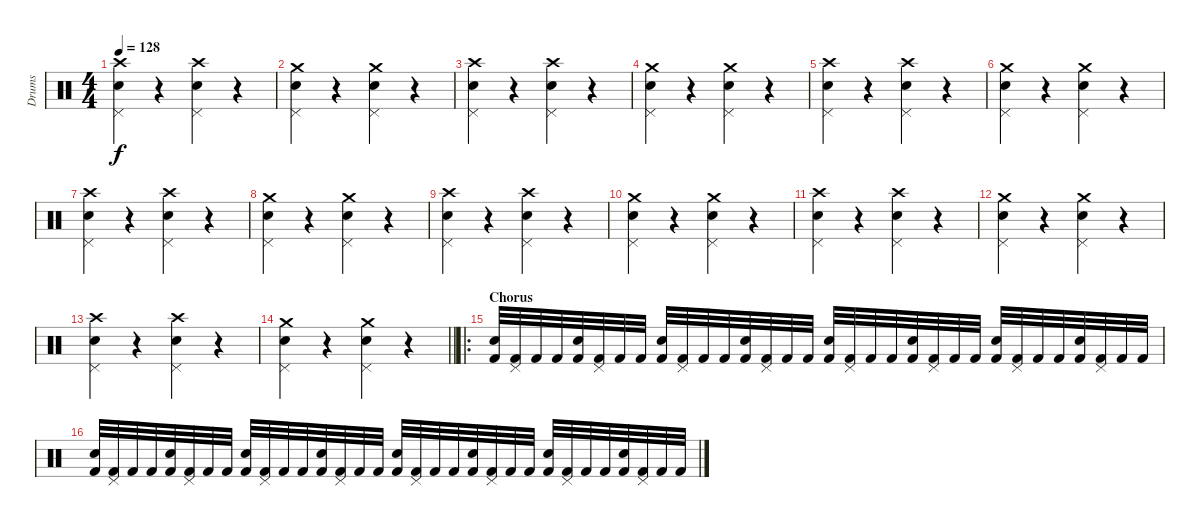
\track ("Drums" "Drums") {instrument percussion}
\staff {score}
\articulation defaults
\ts (4 4)
\tempo 128
\clef neutral
\ks c
("Crash high (hit)" "Pedal Hi-Hat (hit)" "Electric Snare (hit)").4{dy f} r.4 ("Crash high (hit)" "Pedal Hi-Hat (hit)" "Electric Snare (hit)").4 r.4 |
("Crash medium (hit)" "Pedal Hi-Hat (hit)" "Electric Snare (hit)").4 r.4 ("Crash medium (hit)" "Pedal Hi-Hat (hit)" "Electric Snare (hit)").4 r.4 |
("Crash high (hit)" "Pedal Hi-Hat (hit)" "Electric Snare (hit)").4 r.4 ("Crash high (hit)" "Pedal Hi-Hat (hit)" "Electric Snare (hit)").4 r.4 |
("Crash medium (hit)" "Pedal Hi-Hat (hit)" "Electric Snare (hit)").4 r.4 ("Crash medium (hit)" "Pedal Hi-Hat (hit)" "Electric Snare (hit)").4 r.4 |
("Crash high (hit)" "Pedal Hi-Hat (hit)" "Electric Snare (hit)").4 r.4 ("Crash high (hit)" "Pedal Hi-Hat (hit)" "Electric Snare (hit)").4 r.4 |
("Crash medium (hit)" "Pedal Hi-Hat (hit)" "Electric Snare (hit)").4 r.4 ("Crash medium (hit)" "Pedal Hi-Hat (hit)" "Electric Snare (hit)").4 r.4 |
("Crash high (hit)" "Pedal Hi-Hat (hit)" "Electric Snare (hit)").4 r.4 ("Crash high (hit)" "Pedal Hi-Hat (hit)" "Electric Snare (hit)").4 r.4 |
("Crash medium (hit)" "Pedal Hi-Hat (hit)" "Electric Snare (hit)").4 r.4 ("Crash medium (hit)" "Pedal Hi-Hat (hit)" "Electric Snare (hit)").4 r.4 |
("Crash high (hit)" "Pedal Hi-Hat (hit)" "Electric Snare (hit)").4 r.4 ("Crash high (hit)" "Pedal Hi-Hat (hit)" "Electric Snare (hit)").4 r.4 |
("Crash medium (hit)" "Pedal Hi-Hat (hit)" "Electric Snare (hit)").4 r.4 ("Crash medium (hit)" "Pedal Hi-Hat (hit)" "Electric Snare (hit)").4 r.4 |
("Crash high (hit)" "Pedal Hi-Hat (hit)" "Electric Snare (hit)").4 r.4 ("Crash high (hit)" "Pedal Hi-Hat (hit)" "Electric Snare (hit)").4 r.4 |
("Crash medium (hit)" "Pedal Hi-Hat (hit)" "Electric Snare (hit)").4 r.4 ("Crash medium (hit)" "Pedal Hi-Hat (hit)" "Electric Snare (hit)").4 r.4 |
("Crash high (hit)" "Pedal Hi-Hat (hit)" "Electric Snare (hit)").4 r.4 ("Crash high (hit)" "Pedal Hi-Hat (hit)" "Electric Snare (hit)").4 r.4 |
\barLineRight lightlight
("Crash medium (hit)" "Pedal Hi-Hat (hit)" "Electric Snare (hit)").4 r.4 ("Crash medium (hit)" "Pedal Hi-Hat (hit)" "Electric Snare (hit)").4 r.4 |
\ro
\section ("" "Chorus")
("Kick (hit) 2" "Electric Snare (hit)").32 ("Kick (hit) 2" "Pedal Hi-Hat (hit)").32 "Kick (hit) 2".32 "Kick (hit) 2".32 ("Kick (hit) 2" "Electric Snare (hit)").32 ("Kick (hit) 2" "Pedal Hi-Hat (hit)").32 "Kick (hit) 2".32 "Kick (hit) 2".32 ("Kick (hit) 2" "Electric Snare (hit)").32 ("Kick (hit) 2" "Pedal Hi-Hat (hit)").32 "Kick (hit) 2".32 "Kick (hit) 2".32 ("Kick (hit) 2" "Electric Snare (hit)").32 ("Kick (hit) 2" "Pedal Hi-Hat (hit)").32 "Kick (hit) 2".32 "Kick (hit) 2".32 ("Kick (hit) 2" "Electric Snare (hit)").32 ("Kick (hit) 2" "Pedal Hi-Hat (hit)").32 "Kick (hit) 2".32 "Kick (hit) 2".32 ("Kick (hit) 2" "Electric Snare (hit)").32 ("Kick (hit) 2" "Pedal Hi-Hat (hit)").32 "Kick (hit) 2".32 "Kick (hit) 2".32 ("Kick (hit) 2" "Electric Snare (hit)").32 ("Kick (hit) 2" "Pedal Hi-Hat (hit)").32 "Kick (hit) 2".32 "Kick (hit) 2".32 ("Kick (hit) 2" "Electric Snare (hit)").32 ("Kick (hit) 2" "Pedal Hi-Hat (hit)").32 "Kick (hit) 2".32 "Kick (hit) 2".32 |
("Kick (hit) 2" "Electric Snare (hit)").32 ("Kick (hit) 2" "Pedal Hi-Hat (hit)").32 "Kick (hit) 2".32 "Kick (hit) 2".32 ("Kick (hit) 2" "Electric Snare (hit)").32 ("Kick (hit) 2" "Pedal Hi-Hat (hit)").32 "Kick (hit) 2".32 "Kick (hit) 2".32 ("Kick (hit) 2" "Electric Snare (hit)").32 ("Kick (hit) 2" "Pedal Hi-Hat (hit)").32 "Kick (hit) 2".32 "Kick (hit) 2".32 ("Kick (hit) 2" "Electric Snare (hit)").32 ("Kick (hit) 2" "Pedal Hi-Hat (hit)").32 "Kick (hit) 2".32 "Kick (hit) 2".32 ("Kick (hit) 2" "Electric Snare (hit)").32 ("Kick (hit) 2" "Pedal Hi-Hat (hit)").32 "Kick (hit) 2".32 "Kick (hit) 2".32 ("Kick (hit) 2" "Electric Snare (hit)").32 ("Kick (hit) 2" "Pedal Hi-Hat (hit)").32 "Kick (hit) 2".32 "Kick (hit) 2".32 ("Kick (hit) 2" "Electric Snare (hit)").32 ("Kick (hit) 2" "Pedal Hi-Hat (hit)").32 "Kick (hit) 2".32 "Kick (hit) 2".32 ("Kick (hit) 2" "Electric Snare (hit)").32 ("Kick (hit) 2" "Pedal Hi-Hat (hit)").32 "Kick (hit) 2".32 "Kick (hit) 2".32
